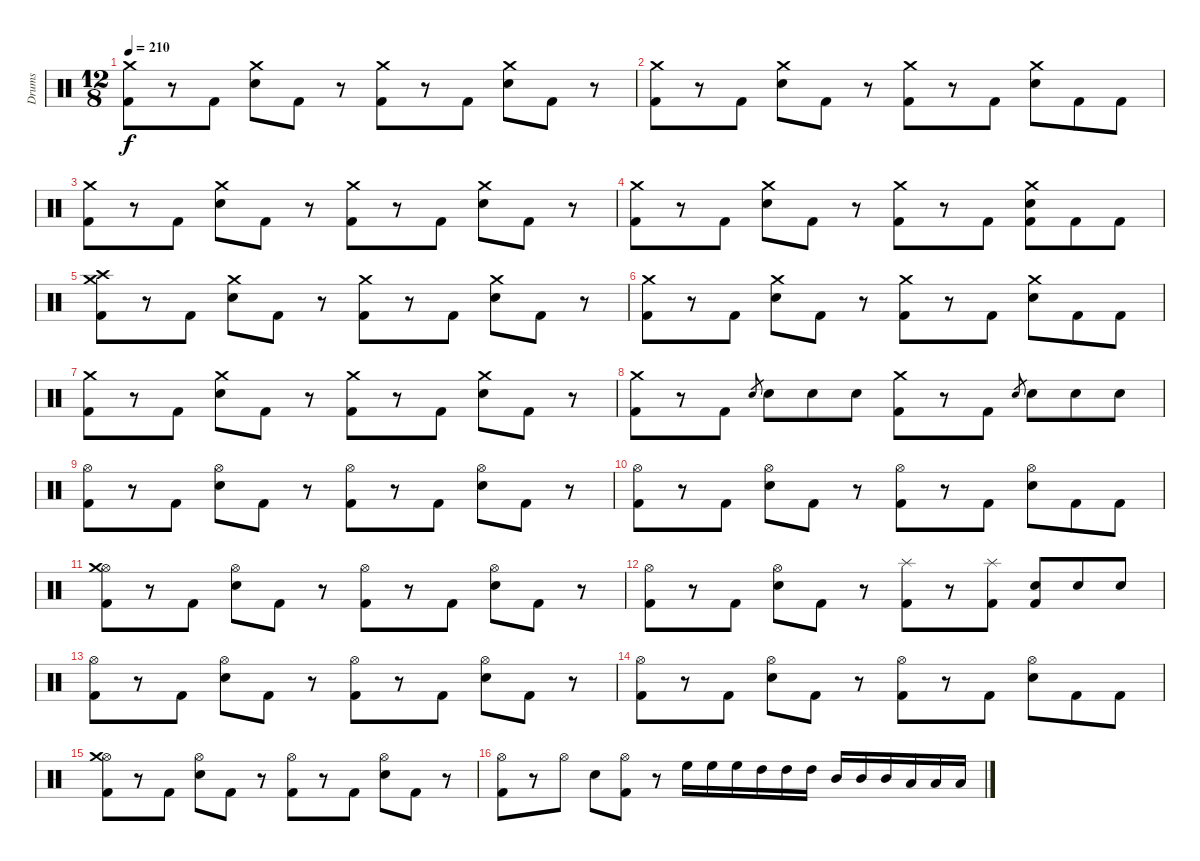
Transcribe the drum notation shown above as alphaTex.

\track ("Drums" "Drums") {instrument percussion}
\staff {score}
\articulation defaults
\ts (12 8)
\tempo 210
\clef neutral
\ks c
("Crash medium (hit)" "Kick (hit) 2").8{dy f} r.8 "Kick (hit) 2".8 ("Crash medium (hit)" "Snare (hit) 2").8 "Kick (hit) 2".8 r.8 ("Crash medium (hit)" "Kick (hit) 2").8 r.8 "Kick (hit) 2".8 ("Crash medium (hit)" "Snare (hit) 2").8 "Kick (hit) 2".8 r.8 |
("Crash medium (hit)" "Kick (hit) 2").8 r.8 "Kick (hit) 2".8 ("Crash medium (hit)" "Snare (hit) 2").8 "Kick (hit) 2".8 r.8 ("Crash medium (hit)" "Kick (hit) 2").8 r.8 "Kick (hit) 2".8 ("Crash medium (hit)" "Snare (hit) 2").8 "Kick (hit) 2".8 "Kick (hit) 2".8 |
("Crash medium (hit)" "Kick (hit) 2").8 r.8 "Kick (hit) 2".8 ("Crash medium (hit)" "Snare (hit) 2").8 "Kick (hit) 2".8 r.8 ("Crash medium (hit)" "Kick (hit) 2").8 r.8 "Kick (hit) 2".8 ("Crash medium (hit)" "Snare (hit) 2").8 "Kick (hit) 2".8 r.8 |
("Crash medium (hit)" "Kick (hit) 2").8 r.8 "Kick (hit) 2".8 ("Crash medium (hit)" "Snare (hit) 2").8 "Kick (hit) 2".8 r.8 ("Crash medium (hit)" "Kick (hit) 2").8 r.8 "Kick (hit) 2".8 ("Crash medium (hit)" "Snare (hit) 2" "Kick (hit) 2").8 "Kick (hit) 2".8 "Kick (hit) 2".8 |
("Crash medium (hit)" "Crash high (hit)" "Kick (hit) 2").8 r.8 "Kick (hit) 2".8 ("Crash medium (hit)" "Snare (hit) 2").8 "Kick (hit) 2".8 r.8 ("Crash medium (hit)" "Kick (hit) 2").8 r.8 "Kick (hit) 2".8 ("Crash medium (hit)" "Snare (hit) 2").8 "Kick (hit) 2".8 r.8 |
("Crash medium (hit)" "Kick (hit) 2").8 r.8 "Kick (hit) 2".8 ("Crash medium (hit)" "Snare (hit) 2").8 "Kick (hit) 2".8 r.8 ("Crash medium (hit)" "Kick (hit) 2").8 r.8 "Kick (hit) 2".8 ("Crash medium (hit)" "Snare (hit) 2").8 "Kick (hit) 2".8 "Kick (hit) 2".8 |
("Crash medium (hit)" "Kick (hit) 2").8 r.8 "Kick (hit) 2".8 ("Crash medium (hit)" "Snare (hit) 2").8 "Kick (hit) 2".8 r.8 ("Crash medium (hit)" "Kick (hit) 2").8 r.8 "Kick (hit) 2".8 ("Crash medium (hit)" "Snare (hit) 2").8 "Kick (hit) 2".8 r.8 |
("Crash medium (hit)" "Kick (hit) 2").8 r.8 "Kick (hit) 2".8 "Snare (hit) 2".8{gr} "Snare (hit) 2".8 "Snare (hit) 2".8 "Snare (hit) 2".8 ("Crash medium (hit)" "Kick (hit) 2").8 r.8 "Kick (hit) 2".8 "Snare (hit) 2".8{gr} "Snare (hit) 2".8 "Snare (hit) 2".8 "Snare (hit) 2".8 |
("Hi-Hat (open)" "Kick (hit) 2").8 r.8 "Kick (hit) 2".8 ("Hi-Hat (open)" "Snare (hit) 2").8 "Kick (hit) 2".8 r.8 ("Hi-Hat (open)" "Kick (hit) 2").8 r.8 "Kick (hit) 2".8 ("Hi-Hat (open)" "Snare (hit) 2").8 "Kick (hit) 2".8 r.8 |
("Hi-Hat (open)" "Kick (hit) 2").8 r.8 "Kick (hit) 2".8 ("Hi-Hat (open)" "Snare (hit) 2").8 "Kick (hit) 2".8 r.8 ("Hi-Hat (open)" "Kick (hit) 2").8 r.8 "Kick (hit) 2".8 ("Hi-Hat (open)" "Snare (hit) 2").8 "Kick (hit) 2".8 "Kick (hit) 2".8 |
("Hi-Hat (open)" "Crash medium (hit)" "Kick (hit) 2").8 r.8 "Kick (hit) 2".8 ("Hi-Hat (open)" "Snare (hit) 2").8 "Kick (hit) 2".8 r.8 ("Hi-Hat (open)" "Kick (hit) 2").8 r.8 "Kick (hit) 2".8 ("Hi-Hat (open)" "Snare (hit) 2").8 "Kick (hit) 2".8 r.8 |
("Hi-Hat (open)" "Kick (hit) 2").8 r.8 "Kick (hit) 2".8 ("Hi-Hat (open)" "Snare (hit) 2").8 "Kick (hit) 2".8 r.8 ("Splash (hit)" "Kick (hit) 2").8 r.8 ("Splash (hit)" "Kick (hit) 2").8 ("Snare (hit) 2" "Kick (hit) 2").8 "Snare (hit) 2".8 "Snare (hit) 2".8 |
("Hi-Hat (open)" "Kick (hit) 2").8 r.8 "Kick (hit) 2".8 ("Hi-Hat (open)" "Snare (hit) 2").8 "Kick (hit) 2".8 r.8 ("Hi-Hat (open)" "Kick (hit) 2").8 r.8 "Kick (hit) 2".8 ("Hi-Hat (open)" "Snare (hit) 2").8 "Kick (hit) 2".8 r.8 |
("Hi-Hat (open)" "Kick (hit) 2").8 r.8 "Kick (hit) 2".8 ("Hi-Hat (open)" "Snare (hit) 2").8 "Kick (hit) 2".8 r.8 ("Hi-Hat (open)" "Kick (hit) 2").8 r.8 "Kick (hit) 2".8 ("Hi-Hat (open)" "Snare (hit) 2").8 "Kick (hit) 2".8 "Kick (hit) 2".8 |
("Hi-Hat (open)" "Crash medium (hit)" "Kick (hit) 2").8 r.8 "Kick (hit) 2".8 ("Hi-Hat (open)" "Snare (hit) 2").8 "Kick (hit) 2".8 r.8 ("Hi-Hat (open)" "Kick (hit) 2").8 r.8 "Kick (hit) 2".8 ("Hi-Hat (open)" "Snare (hit) 2").8 "Kick (hit) 2".8 r.8 |
("Hi-Hat (open)" "Kick (hit) 2").8 r.8 "Hi-Hat (open)".8 "Snare (hit) 2".8 ("Hi-Hat (open)" "Kick (hit) 2").8 r.8 "High Floor Tom (hit)".16 "High Floor Tom (hit)".16 "High Floor Tom (hit)".16 "High Tom (hit)".16 "High Tom (hit)".16 "High Tom (hit)".16 "Mid Tom (hit)".16 "Mid Tom (hit)".16 "Mid Tom (hit)".16 "Low Tom (hit)".16 "Low Tom (hit)".16 "Low Tom (hit)".16
